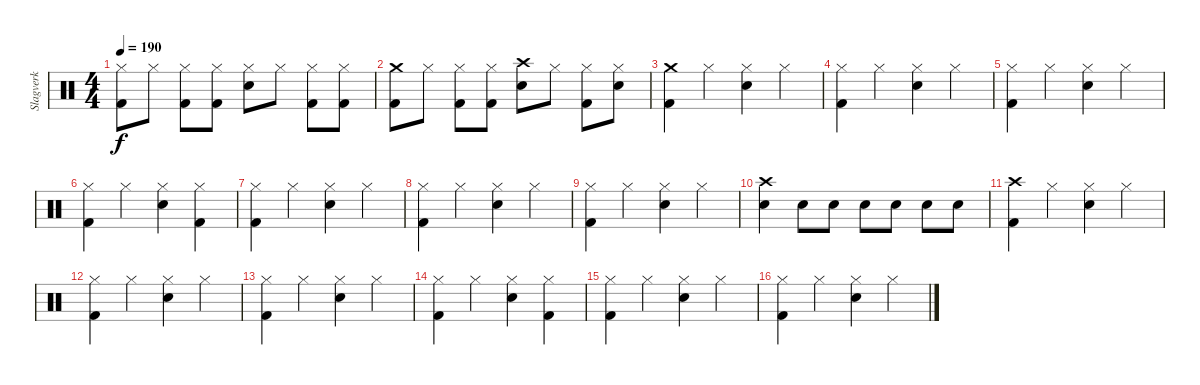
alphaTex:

\track ("Slagverk" "Slagverk") {instrument percussion}
\staff {score}
\articulation defaults
\ts (4 4)
\tempo 190
\clef neutral
\ks c
("Hi-Hat (closed)" "Kick (hit) 2").8{dy f} "Hi-Hat (closed)".8 ("Hi-Hat (closed)" "Kick (hit) 2").8 ("Hi-Hat (closed)" "Kick (hit) 2").8 ("Hi-Hat (closed)" "Snare (hit) 2").8 "Hi-Hat (closed)".8 ("Hi-Hat (closed)" "Kick (hit) 2").8 ("Hi-Hat (closed)" "Kick (hit) 2").8 |
("Crash medium (hit)" "Kick (hit) 2").8 "Hi-Hat (closed)".8 ("Hi-Hat (closed)" "Kick (hit) 2").8 ("Hi-Hat (closed)" "Kick (hit) 2").8 ("Crash high (hit)" "Snare (hit) 2").8 "Hi-Hat (closed)".8 ("Hi-Hat (closed)" "Kick (hit) 2").8 ("Hi-Hat (closed)" "Snare (hit) 2").8 |
("Crash medium (hit)" "Kick (hit) 2").4 "Hi-Hat (closed)".4 ("Hi-Hat (closed)" "Snare (hit) 2").4 "Hi-Hat (closed)".4 |
("Hi-Hat (closed)" "Kick (hit) 2").4 "Hi-Hat (closed)".4 ("Hi-Hat (closed)" "Snare (hit) 2").4 "Hi-Hat (closed)".4 |
("Hi-Hat (closed)" "Kick (hit) 2").4 "Hi-Hat (closed)".4 ("Hi-Hat (closed)" "Snare (hit) 2").4 "Hi-Hat (closed)".4 |
("Hi-Hat (closed)" "Kick (hit) 2").4 "Hi-Hat (closed)".4 ("Hi-Hat (closed)" "Snare (hit) 2").4 ("Hi-Hat (closed)" "Kick (hit) 2").4 |
("Hi-Hat (closed)" "Kick (hit) 2").4 "Hi-Hat (closed)".4 ("Hi-Hat (closed)" "Snare (hit) 2").4 "Hi-Hat (closed)".4 |
("Hi-Hat (closed)" "Kick (hit) 2").4 "Hi-Hat (closed)".4 ("Hi-Hat (closed)" "Snare (hit) 2").4 "Hi-Hat (closed)".4 |
("Hi-Hat (closed)" "Kick (hit) 2").4 "Hi-Hat (closed)".4 ("Hi-Hat (closed)" "Snare (hit) 2").4 "Hi-Hat (closed)".4 |
("Crash high (hit)" "Snare (hit) 2").4 "Snare (hit) 2".8 "Snare (hit) 2".8 "Snare (hit) 2".8 "Snare (hit) 2".8 "Snare (hit) 2".8 "Snare (hit) 2".8 |
("Crash high (hit)" "Kick (hit) 2").4 "Hi-Hat (closed)".4 ("Hi-Hat (closed)" "Snare (hit) 2").4 "Hi-Hat (closed)".4 |
("Hi-Hat (closed)" "Kick (hit) 2").4 "Hi-Hat (closed)".4 ("Hi-Hat (closed)" "Snare (hit) 2").4 "Hi-Hat (closed)".4 |
("Hi-Hat (closed)" "Kick (hit) 2").4 "Hi-Hat (closed)".4 ("Hi-Hat (closed)" "Snare (hit) 2").4 "Hi-Hat (closed)".4 |
("Hi-Hat (closed)" "Kick (hit) 2").4 "Hi-Hat (closed)".4 ("Hi-Hat (closed)" "Snare (hit) 2").4 ("Hi-Hat (closed)" "Kick (hit) 2").4 |
("Hi-Hat (closed)" "Kick (hit) 2").4 "Hi-Hat (closed)".4 ("Hi-Hat (closed)" "Snare (hit) 2").4 "Hi-Hat (closed)".4 |
("Hi-Hat (closed)" "Kick (hit) 2").4 "Hi-Hat (closed)".4 ("Hi-Hat (closed)" "Snare (hit) 2").4 "Hi-Hat (closed)".4
